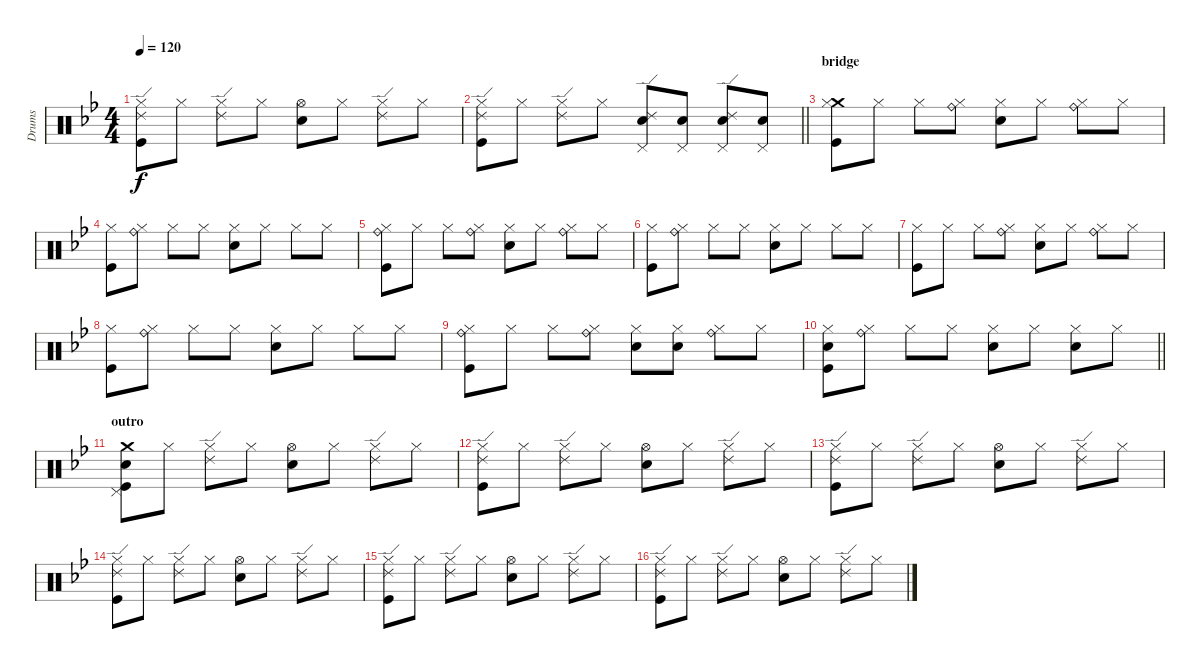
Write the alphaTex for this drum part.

\track ("Drums" "Drums") {instrument percussion}
\staff {score}
\articulation defaults
\ts (4 4)
\tempo 120
\clef neutral
\ks gminor
("Hi-Hat (closed)" "Ride (edge) 2" "Kick (hit)").8{dy f} "Hi-Hat (closed)".8 ("Hi-Hat (closed)" "Ride (edge) 2").8 "Hi-Hat (closed)".8 ("Hi-Hat (open)" "Electric Snare (hit)").8 "Hi-Hat (closed)".8 ("Hi-Hat (closed)" "Ride (edge) 2").8 "Hi-Hat (closed)".8 |
\barLineRight lightlight
("Hi-Hat (closed)" "Ride (edge) 2" "Kick (hit)").8 "Hi-Hat (closed)".8 ("Hi-Hat (closed)" "Ride (edge) 2").8 "Hi-Hat (closed)".8 ("Pedal Hi-Hat (hit)" "Ride (edge) 2" "Electric Snare (hit)").8 ("Pedal Hi-Hat (hit)" "Electric Snare (hit)").8 ("Pedal Hi-Hat (hit)" "Ride (edge) 2" "Electric Snare (hit)").8 ("Pedal Hi-Hat (hit)" "Electric Snare (hit)").8 |
\section ("" "bridge")
("Crash medium (hit)" "Hi-Hat (closed)" "Kick (hit)").8 "Hi-Hat (closed)".8 "Hi-Hat (closed)".8 ("Ride (bell)" "Hi-Hat (closed)").8 ("Hi-Hat (closed)" "Electric Snare (hit)").8 "Hi-Hat (closed)".8 ("Ride (bell)" "Hi-Hat (closed)").8 "Hi-Hat (closed)".8 |
("Hi-Hat (closed)" "Kick (hit)").8 ("Ride (bell)" "Hi-Hat (closed)").8 "Hi-Hat (closed)".8 "Hi-Hat (closed)".8 ("Hi-Hat (closed)" "Electric Snare (hit)").8 "Hi-Hat (closed)".8 "Hi-Hat (closed)".8 "Hi-Hat (closed)".8 |
("Ride (bell)" "Hi-Hat (closed)" "Kick (hit)").8 "Hi-Hat (closed)".8 "Hi-Hat (closed)".8 ("Ride (bell)" "Hi-Hat (closed)").8 ("Hi-Hat (closed)" "Electric Snare (hit)").8 "Hi-Hat (closed)".8 ("Ride (bell)" "Hi-Hat (closed)").8 "Hi-Hat (closed)".8 |
("Hi-Hat (closed)" "Kick (hit)").8 ("Ride (bell)" "Hi-Hat (closed)").8 "Hi-Hat (closed)".8 "Hi-Hat (closed)".8 ("Hi-Hat (closed)" "Electric Snare (hit)").8 "Hi-Hat (closed)".8 "Hi-Hat (closed)".8 "Hi-Hat (closed)".8 |
("Hi-Hat (closed)" "Kick (hit)").8 "Hi-Hat (closed)".8 "Hi-Hat (closed)".8 ("Ride (bell)" "Hi-Hat (closed)").8 ("Hi-Hat (closed)" "Electric Snare (hit)").8 "Hi-Hat (closed)".8 ("Ride (bell)" "Hi-Hat (closed)").8 "Hi-Hat (closed)".8 |
("Hi-Hat (closed)" "Kick (hit)").8 ("Ride (bell)" "Hi-Hat (closed)").8 "Hi-Hat (closed)".8 "Hi-Hat (closed)".8 ("Hi-Hat (closed)" "Electric Snare (hit)").8 "Hi-Hat (closed)".8 "Hi-Hat (closed)".8 "Hi-Hat (closed)".8 |
("Ride (bell)" "Hi-Hat (closed)" "Kick (hit)").8 "Hi-Hat (closed)".8 "Hi-Hat (closed)".8 ("Ride (bell)" "Hi-Hat (closed)").8 ("Hi-Hat (closed)" "Electric Snare (hit)").8 ("Hi-Hat (closed)" "Electric Snare (hit)").8 ("Ride (bell)" "Hi-Hat (closed)").8 "Hi-Hat (closed)".8 |
\barLineRight lightlight
("Hi-Hat (closed)" "Electric Snare (hit)" "Kick (hit)").8 ("Ride (bell)" "Hi-Hat (closed)").8 "Hi-Hat (closed)".8 "Hi-Hat (closed)".8 ("Hi-Hat (closed)" "Electric Snare (hit)").8 "Hi-Hat (closed)".8 ("Hi-Hat (closed)" "Electric Snare (hit)").8 "Hi-Hat (closed)".8 |
\section ("" "outro")
("Crash medium (hit)" "Pedal Hi-Hat (hit)" "Electric Snare (hit)" "Kick (hit)").8 "Hi-Hat (closed)".8 ("Hi-Hat (closed)" "Ride (edge) 2").8 "Hi-Hat (closed)".8 ("Hi-Hat (open)" "Electric Snare (hit)").8 "Hi-Hat (closed)".8 ("Hi-Hat (closed)" "Ride (edge) 2").8 "Hi-Hat (closed)".8 |
("Hi-Hat (closed)" "Ride (edge) 2" "Kick (hit)").8 "Hi-Hat (closed)".8 ("Hi-Hat (closed)" "Ride (edge) 2").8 "Hi-Hat (closed)".8 ("Hi-Hat (open)" "Electric Snare (hit)").8 "Hi-Hat (closed)".8 ("Hi-Hat (closed)" "Ride (edge) 2").8 "Hi-Hat (closed)".8 |
("Hi-Hat (closed)" "Ride (edge) 2" "Kick (hit)").8 "Hi-Hat (closed)".8 ("Hi-Hat (closed)" "Ride (edge) 2").8 "Hi-Hat (closed)".8 ("Hi-Hat (open)" "Electric Snare (hit)").8 "Hi-Hat (closed)".8 ("Hi-Hat (closed)" "Ride (edge) 2").8 "Hi-Hat (closed)".8 |
("Hi-Hat (closed)" "Ride (edge) 2" "Kick (hit)").8 "Hi-Hat (closed)".8 ("Hi-Hat (closed)" "Ride (edge) 2").8 "Hi-Hat (closed)".8 ("Hi-Hat (open)" "Electric Snare (hit)").8 "Hi-Hat (closed)".8 ("Hi-Hat (closed)" "Ride (edge) 2").8 "Hi-Hat (closed)".8 |
("Hi-Hat (closed)" "Ride (edge) 2" "Kick (hit)").8 "Hi-Hat (closed)".8 ("Hi-Hat (closed)" "Ride (edge) 2").8 "Hi-Hat (closed)".8 ("Hi-Hat (open)" "Electric Snare (hit)").8 "Hi-Hat (closed)".8 ("Hi-Hat (closed)" "Ride (edge) 2").8 "Hi-Hat (closed)".8 |
("Hi-Hat (closed)" "Ride (edge) 2" "Kick (hit)").8 "Hi-Hat (closed)".8 ("Hi-Hat (closed)" "Ride (edge) 2").8 "Hi-Hat (closed)".8 ("Hi-Hat (open)" "Electric Snare (hit)").8 "Hi-Hat (closed)".8 ("Hi-Hat (closed)" "Ride (edge) 2").8 "Hi-Hat (closed)".8
